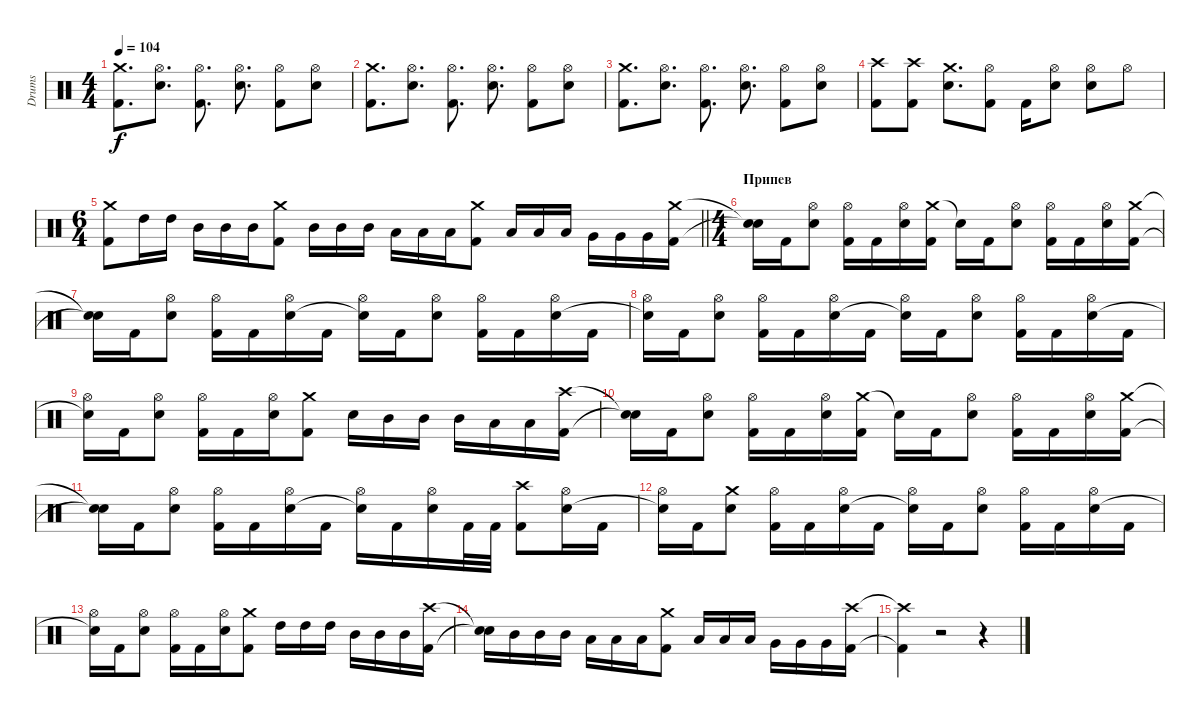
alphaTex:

\track ("Drums" "Drums") {instrument percussion}
\staff {score}
\articulation defaults
\ts (4 4)
\tempo 104
\clef neutral
\ks c
("Crash medium (hit)" "Kick (hit) 2").8{d dy f} ("Hi-Hat (open)" "Electric Snare (hit)").8{d} ("Hi-Hat (open)" "Kick (hit) 2").8{d} ("Hi-Hat (open)" "Electric Snare (hit)").8{d} ("Hi-Hat (open)" "Kick (hit) 2").8 ("Hi-Hat (open)" "Electric Snare (hit)").8 |
("Crash medium (hit)" "Kick (hit) 2").8{d} ("Hi-Hat (open)" "Electric Snare (hit)").8{d} ("Hi-Hat (open)" "Kick (hit) 2").8{d} ("Hi-Hat (open)" "Electric Snare (hit)").8{d} ("Hi-Hat (open)" "Kick (hit) 2").8 ("Hi-Hat (open)" "Electric Snare (hit)").8 |
("Crash medium (hit)" "Kick (hit) 2").8{d} ("Hi-Hat (open)" "Electric Snare (hit)").8{d} ("Hi-Hat (open)" "Kick (hit) 2").8{d} ("Hi-Hat (open)" "Electric Snare (hit)").8{d} ("Hi-Hat (open)" "Kick (hit) 2").8 ("Hi-Hat (open)" "Electric Snare (hit)").8 |
("Crash high (hit)" "Kick (hit) 2").8 ("Crash high (hit)" "Kick (hit) 2").8 ("Crash medium (hit)" "Electric Snare (hit)").8{d} ("Hi-Hat (open)" "Kick (hit) 2").8 "Kick (hit) 2".16 ("Hi-Hat (open)" "Electric Snare (hit)").8 ("Hi-Hat (open)" "Electric Snare (hit)").8 "Hi-Hat (open)".8 |
\ts (6 4)
\barLineRight lightlight
("Crash medium (hit)" "Kick (hit) 2").8 "High Tom (hit)".16 "High Tom (hit)".16 "Mid Tom (hit)".16 "Mid Tom (hit)".16 "Mid Tom (hit)".16 ("Crash medium (hit)" "Kick (hit) 2").8 "Mid Tom (hit)".16 "Mid Tom (hit)".16 "Mid Tom (hit)".16 "Low Tom (hit)".16 "Low Tom (hit)".16 "Low Tom (hit)".16 ("Crash medium (hit)" "Kick (hit) 2").8 "Low Tom (hit)".16 "Low Tom (hit)".16 "Low Tom (hit)".16 "Very Low Tom (hit)".16 "Very Low Tom (hit)".16 "Very Low Tom (hit)".16 ("Crash medium (hit)" "Kick (hit) 2").16 |
\ts (4 4)
\section ("" "Припев")
("Snare (hit)"{t} "Snare (hit)"{t}).16 "Kick (hit) 2".16 ("Hi-Hat (open)" "Electric Snare (hit)").8 ("Hi-Hat (open)" "Kick (hit) 2").16 "Kick (hit) 2".16 ("Hi-Hat (open)" "Electric Snare (hit)").16 ("Crash medium (hit)" "Kick (hit) 2").16 "Snare (hit)"{t}.16 "Kick (hit) 2".16 ("Hi-Hat (open)" "Electric Snare (hit)").8 ("Hi-Hat (open)" "Kick (hit) 2").16 "Kick (hit) 2".16 ("Hi-Hat (open)" "Electric Snare (hit)").16 ("Crash medium (hit)" "Kick (hit) 2").16 |
("Snare (hit)"{t} "Snare (hit)"{t}).16 "Kick (hit) 2".16 ("Hi-Hat (open)" "Electric Snare (hit)").8 ("Hi-Hat (open)" "Kick (hit) 2").16 "Kick (hit) 2".16 ("Hi-Hat (open)" "Electric Snare (hit)").16 "Kick (hit) 2".16 ("Hi-Hat (open)" "Snare (hit)"{t}).16 "Kick (hit) 2".16 ("Hi-Hat (open)" "Electric Snare (hit)").8 ("Hi-Hat (open)" "Kick (hit) 2").16 "Kick (hit) 2".16 ("Hi-Hat (open)" "Electric Snare (hit)").16 "Kick (hit) 2".16 |
("Hi-Hat (open)" "Snare (hit)"{t}).16 "Kick (hit) 2".16 ("Hi-Hat (open)" "Electric Snare (hit)").8 ("Hi-Hat (open)" "Kick (hit) 2").16 "Kick (hit) 2".16 ("Hi-Hat (open)" "Electric Snare (hit)").16 "Kick (hit) 2".16 ("Hi-Hat (open)" "Snare (hit)"{t}).16 "Kick (hit) 2".16 ("Hi-Hat (open)" "Electric Snare (hit)").8 ("Hi-Hat (open)" "Kick (hit) 2").16 "Kick (hit) 2".16 ("Hi-Hat (open)" "Electric Snare (hit)").16 "Kick (hit) 2".16 |
("Hi-Hat (open)" "Snare (hit)"{t}).16 "Kick (hit) 2".16 ("Hi-Hat (open)" "Electric Snare (hit)").8 ("Hi-Hat (open)" "Kick (hit) 2").16 "Kick (hit) 2".16 ("Hi-Hat (open)" "Electric Snare (hit)").16 ("Crash medium (hit)" "Kick (hit) 2").8 "Electric Snare (hit)".16 "Mid Tom (hit)".16 "Mid Tom (hit)".16 "Mid Tom (hit)".16 "Low Tom (hit)".16 "Low Tom (hit)".16 ("Crash high (hit)" "Kick (hit) 2").16 |
("Snare (hit)"{t} "Snare (hit)"{t}).16 "Kick (hit) 2".16 ("Hi-Hat (open)" "Electric Snare (hit)").8 ("Hi-Hat (open)" "Kick (hit) 2").16 "Kick (hit) 2".16 ("Hi-Hat (open)" "Electric Snare (hit)").16 ("Crash medium (hit)" "Kick (hit) 2").16 "Snare (hit)"{t}.16 "Kick (hit) 2".16 ("Hi-Hat (open)" "Electric Snare (hit)").8 ("Hi-Hat (open)" "Kick (hit) 2").16 "Kick (hit) 2".16 ("Hi-Hat (open)" "Electric Snare (hit)").16 ("Crash medium (hit)" "Kick (hit) 2").16 |
("Snare (hit)"{t} "Snare (hit)"{t}).16 "Kick (hit) 2".16 ("Hi-Hat (open)" "Electric Snare (hit)").8 ("Hi-Hat (open)" "Kick (hit) 2").16 "Kick (hit) 2".16 ("Hi-Hat (open)" "Electric Snare (hit)").16 "Kick (hit) 2".16 ("Hi-Hat (open)" "Snare (hit)"{t}).16 "Kick (hit) 2".16 ("Hi-Hat (open)" "Electric Snare (hit)").16 "Kick (hit) 2".32 "Kick (hit) 2".32 ("Crash high (hit)" "Kick (hit) 2").8 ("Hi-Hat (open)" "Electric Snare (hit)").16 "Kick (hit) 2".16 |
("Hi-Hat (open)" "Snare (hit)"{t}).16 "Kick (hit) 2".16 ("Crash medium (hit)" "Electric Snare (hit)").8 ("Hi-Hat (open)" "Kick (hit) 2").16 "Kick (hit) 2".16 ("Hi-Hat (open)" "Electric Snare (hit)").16 "Kick (hit) 2".16 ("Hi-Hat (open)" "Snare (hit)"{t}).16 "Kick (hit) 2".16 ("Hi-Hat (open)" "Electric Snare (hit)").8 ("Hi-Hat (open)" "Kick (hit) 2").16 "Kick (hit) 2".16 ("Hi-Hat (open)" "Electric Snare (hit)").16 "Kick (hit) 2".16 |
("Hi-Hat (open)" "Snare (hit)"{t}).16 "Kick (hit) 2".16 ("Hi-Hat (open)" "Electric Snare (hit)").8 ("Hi-Hat (open)" "Kick (hit) 2").16 "Kick (hit) 2".16 ("Hi-Hat (open)" "Electric Snare (hit)").16 ("Crash medium (hit)" "Kick (hit) 2").8 "High Tom (hit)".16 "High Tom (hit)".16 "High Tom (hit)".16 "Mid Tom (hit)".16 "Mid Tom (hit)".16 "Mid Tom (hit)".16 ("Crash high (hit)" "Kick (hit) 2").16 |
("Snare (hit)"{t} "Snare (hit)"{t}).16 "Mid Tom (hit)".16 "Mid Tom (hit)".16 "Mid Tom (hit)".16 "Low Tom (hit)".16 "Low Tom (hit)".16 "Low Tom (hit)".16 ("Crash medium (hit)" "Kick (hit) 2").8 "Low Tom (hit)".16 "Low Tom (hit)".16 "Low Tom (hit)".16 "Very Low Tom (hit)".16 "Very Low Tom (hit)".16 "Very Low Tom (hit)".16 ("Crash high (hit)" "Kick (hit) 2").16 |
("Crash high (hit)"{t} "Kick (hit) 2"{t}).4 r.2 r.4
